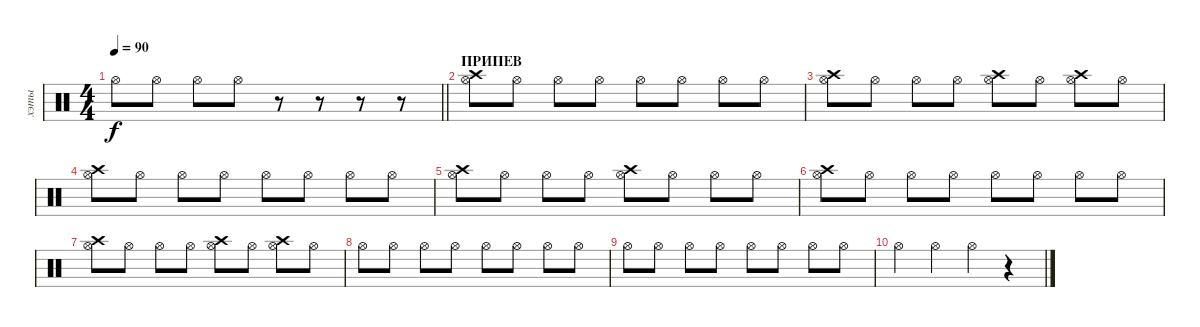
\track ("хэты" "хэты") {instrument percussion}
\staff {score}
\articulation defaults
\ts (4 4)
\tempo 90
\clef neutral
\barLineRight lightlight
\ks c "Hi-Hat (open)".8{dy f} "Hi-Hat (open)".8 "Hi-Hat (open)".8 "Hi-Hat (open)".8
r.8 r.8 r.8 r.8 |
\section ("" "ПРИПЕВ")
("Hi-Hat (open)" "Crash high (hit)").8 "Hi-Hat (open)".8 "Hi-Hat (open)".8 "Hi-Hat (open)".8 "Hi-Hat (open)".8 "Hi-Hat (open)".8 "Hi-Hat (open)".8 "Hi-Hat (open)".8 |
("Hi-Hat (open)" "Crash high (hit)").8 "Hi-Hat (open)".8 "Hi-Hat (open)".8 "Hi-Hat (open)".8 ("Hi-Hat (open)" "Crash high (hit)").8 "Hi-Hat (open)".8 ("Hi-Hat (open)" "Crash high (hit)").8 "Hi-Hat (open)".8 |
("Hi-Hat (open)" "Crash high (hit)").8 "Hi-Hat (open)".8 "Hi-Hat (open)".8 "Hi-Hat (open)".8 "Hi-Hat (open)".8 "Hi-Hat (open)".8 "Hi-Hat (open)".8 "Hi-Hat (open)".8 |
("Hi-Hat (open)" "Crash high (hit)").8 "Hi-Hat (open)".8 "Hi-Hat (open)".8 "Hi-Hat (open)".8 ("Hi-Hat (open)" "Crash high (hit)").8 "Hi-Hat (open)".8 "Hi-Hat (open)".8 "Hi-Hat (open)".8 |
("Hi-Hat (open)" "Crash high (hit)").8 "Hi-Hat (open)".8 "Hi-Hat (open)".8 "Hi-Hat (open)".8 "Hi-Hat (open)".8 "Hi-Hat (open)".8 "Hi-Hat (open)".8 "Hi-Hat (open)".8 |
("Hi-Hat (open)" "Crash high (hit)").8 "Hi-Hat (open)".8 "Hi-Hat (open)".8 "Hi-Hat (open)".8 ("Hi-Hat (open)" "Crash high (hit)").8 "Hi-Hat (open)".8 ("Hi-Hat (open)" "Crash high (hit)").8 "Hi-Hat (open)".8 |
"Hi-Hat (open)".8 "Hi-Hat (open)".8 "Hi-Hat (open)".8 "Hi-Hat (open)".8 "Hi-Hat (open)".8 "Hi-Hat (open)".8 "Hi-Hat (open)".8 "Hi-Hat (open)".8 |
"Hi-Hat (open)".8 "Hi-Hat (open)".8 "Hi-Hat (open)".8 "Hi-Hat (open)".8 "Hi-Hat (open)".8 "Hi-Hat (open)".8 "Hi-Hat (open)".8 "Hi-Hat (open)".8 |
"Hi-Hat (open)".4 "Hi-Hat (open)".4 "Hi-Hat (open)".4 r.4
